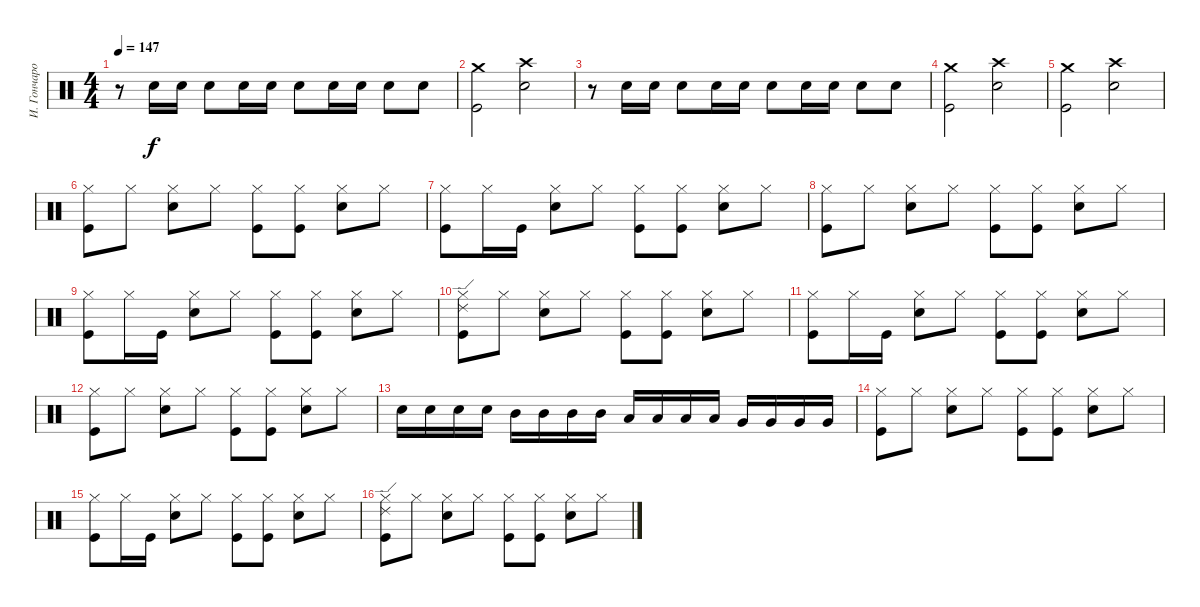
\track ("И. Гончаров" "И. Гончаро") {instrument percussion}
\staff {score}
\articulation defaults
\ts (4 4)
\tempo 147
\clef neutral
\ks c
r.8{dy f} "Snare (hit) 2".16 "Snare (hit) 2".16 "Snare (hit) 2".8 "Snare (hit) 2".16 "Snare (hit) 2".16 "Snare (hit) 2".8 "Snare (hit) 2".16 "Snare (hit) 2".16 "Snare (hit) 2".8 "Snare (hit) 2".8 |
("Crash medium (hit)" "Kick (hit)").2 ("Crash high (hit)" "Snare (hit) 2").2 |
r.8 "Snare (hit) 2".16 "Snare (hit) 2".16 "Snare (hit) 2".8 "Snare (hit) 2".16 "Snare (hit) 2".16 "Snare (hit) 2".8 "Snare (hit) 2".16 "Snare (hit) 2".16 "Snare (hit) 2".8 "Snare (hit) 2".8 |
("Crash medium (hit)" "Kick (hit)").2 ("Crash high (hit)" "Snare (hit) 2").2 |
("Crash medium (hit)" "Kick (hit)").2 ("Crash high (hit)" "Snare (hit) 2").2 |
("Hi-Hat (closed)" "Kick (hit)").8 "Hi-Hat (closed)".8 ("Hi-Hat (closed)" "Snare (hit) 2").8 "Hi-Hat (closed)".8 ("Hi-Hat (closed)" "Kick (hit)").8 ("Hi-Hat (closed)" "Kick (hit)").8 ("Hi-Hat (closed)" "Snare (hit) 2").8 "Hi-Hat (closed)".8 |
("Hi-Hat (closed)" "Kick (hit)").8 "Hi-Hat (closed)".16 "Kick (hit)".16 ("Hi-Hat (closed)" "Snare (hit) 2").8 "Hi-Hat (closed)".8 ("Hi-Hat (closed)" "Kick (hit)").8 ("Hi-Hat (closed)" "Kick (hit)").8 ("Hi-Hat (closed)" "Snare (hit) 2").8 "Hi-Hat (closed)".8 |
("Hi-Hat (closed)" "Kick (hit)").8 "Hi-Hat (closed)".8 ("Hi-Hat (closed)" "Snare (hit) 2").8 "Hi-Hat (closed)".8 ("Hi-Hat (closed)" "Kick (hit)").8 ("Hi-Hat (closed)" "Kick (hit)").8 ("Hi-Hat (closed)" "Snare (hit) 2").8 "Hi-Hat (closed)".8 |
("Hi-Hat (closed)" "Kick (hit)").8 "Hi-Hat (closed)".16 "Kick (hit)".16 ("Hi-Hat (closed)" "Snare (hit) 2").8 "Hi-Hat (closed)".8 ("Hi-Hat (closed)" "Kick (hit)").8 ("Hi-Hat (closed)" "Kick (hit)").8 ("Hi-Hat (closed)" "Snare (hit) 2").8 "Hi-Hat (closed)".8 |
("Ride (edge) 2" "Hi-Hat (closed)" "Kick (hit)").8 "Hi-Hat (closed)".8 ("Hi-Hat (closed)" "Snare (hit) 2").8 "Hi-Hat (closed)".8 ("Hi-Hat (closed)" "Kick (hit)").8 ("Hi-Hat (closed)" "Kick (hit)").8 ("Hi-Hat (closed)" "Snare (hit) 2").8 "Hi-Hat (closed)".8 |
("Hi-Hat (closed)" "Kick (hit)").8 "Hi-Hat (closed)".16 "Kick (hit)".16 ("Hi-Hat (closed)" "Snare (hit) 2").8 "Hi-Hat (closed)".8 ("Hi-Hat (closed)" "Kick (hit)").8 ("Hi-Hat (closed)" "Kick (hit)").8 ("Hi-Hat (closed)" "Snare (hit) 2").8 "Hi-Hat (closed)".8 |
("Hi-Hat (closed)" "Kick (hit)").8 "Hi-Hat (closed)".8 ("Hi-Hat (closed)" "Snare (hit) 2").8 "Hi-Hat (closed)".8 ("Hi-Hat (closed)" "Kick (hit)").8 ("Hi-Hat (closed)" "Kick (hit)").8 ("Hi-Hat (closed)" "Snare (hit) 2").8 "Hi-Hat (closed)".8 |
"Snare (hit) 2".16 "Snare (hit) 2".16 "Snare (hit) 2".16 "Snare (hit) 2".16 "Mid Tom (hit)".16 "Mid Tom (hit)".16 "Mid Tom (hit)".16 "Mid Tom (hit)".16 "Low Tom (hit)".16 "Low Tom (hit)".16 "Low Tom (hit)".16 "Low Tom (hit)".16 "Very Low Tom (hit)".16 "Very Low Tom (hit)".16 "Very Low Tom (hit)".16 "Very Low Tom (hit)".16 |
("Hi-Hat (closed)" "Kick (hit)").8 "Hi-Hat (closed)".8 ("Hi-Hat (closed)" "Snare (hit) 2").8 "Hi-Hat (closed)".8 ("Hi-Hat (closed)" "Kick (hit)").8 ("Hi-Hat (closed)" "Kick (hit)").8 ("Hi-Hat (closed)" "Snare (hit) 2").8 "Hi-Hat (closed)".8 |
("Hi-Hat (closed)" "Kick (hit)").8 "Hi-Hat (closed)".16 "Kick (hit)".16 ("Hi-Hat (closed)" "Snare (hit) 2").8 "Hi-Hat (closed)".8 ("Hi-Hat (closed)" "Kick (hit)").8 ("Hi-Hat (closed)" "Kick (hit)").8 ("Hi-Hat (closed)" "Snare (hit) 2").8 "Hi-Hat (closed)".8 |
("Ride (edge) 2" "Hi-Hat (closed)" "Kick (hit)").8 "Hi-Hat (closed)".8 ("Hi-Hat (closed)" "Snare (hit) 2").8 "Hi-Hat (closed)".8 ("Hi-Hat (closed)" "Kick (hit)").8 ("Hi-Hat (closed)" "Kick (hit)").8 ("Hi-Hat (closed)" "Snare (hit) 2").8 "Hi-Hat (closed)".8
